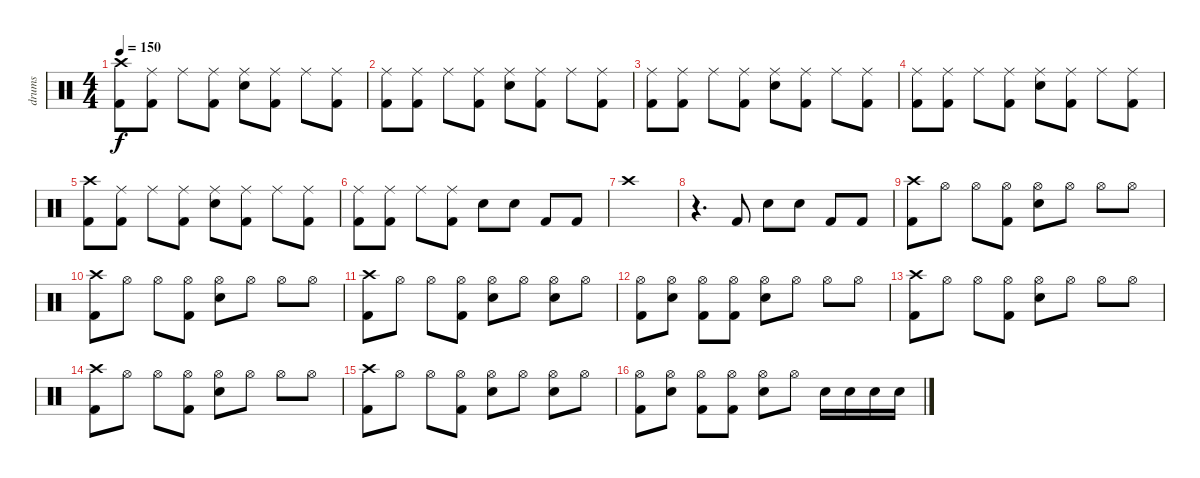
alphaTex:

\track ("drums" "drums") {instrument percussion}
\staff {score}
\articulation defaults
\ts (4 4)
\tempo 150
\clef neutral
\ks c
("Crash high (hit)" "Kick (hit) 2").8{dy f} ("Ride (middle)" "Kick (hit) 2").8 "Ride (middle)".8 ("Ride (middle)" "Kick (hit) 2").8 ("Ride (middle)" "Electric Snare (hit)").8 ("Ride (middle)" "Kick (hit) 2").8 "Ride (middle)".8 ("Ride (middle)" "Kick (hit) 2").8 |
("Ride (middle)" "Kick (hit) 2").8 ("Ride (middle)" "Kick (hit) 2").8 "Ride (middle)".8 ("Ride (middle)" "Kick (hit) 2").8 ("Ride (middle)" "Electric Snare (hit)").8 ("Ride (middle)" "Kick (hit) 2").8 "Ride (middle)".8 ("Ride (middle)" "Kick (hit) 2").8 |
("Ride (middle)" "Kick (hit) 2").8 ("Ride (middle)" "Kick (hit) 2").8 "Ride (middle)".8 ("Ride (middle)" "Kick (hit) 2").8 ("Ride (middle)" "Electric Snare (hit)").8 ("Ride (middle)" "Kick (hit) 2").8 "Ride (middle)".8 ("Ride (middle)" "Kick (hit) 2").8 |
("Ride (middle)" "Kick (hit) 2").8 ("Ride (middle)" "Kick (hit) 2").8 "Ride (middle)".8 ("Ride (middle)" "Kick (hit) 2").8 ("Ride (middle)" "Electric Snare (hit)").8 ("Ride (middle)" "Kick (hit) 2").8 "Ride (middle)".8 ("Ride (middle)" "Kick (hit) 2").8 |
("Crash high (hit)" "Kick (hit) 2").8 ("Ride (middle)" "Kick (hit) 2").8 "Ride (middle)".8 ("Ride (middle)" "Kick (hit) 2").8 ("Ride (middle)" "Electric Snare (hit)").8 ("Ride (middle)" "Kick (hit) 2").8 "Ride (middle)".8 ("Ride (middle)" "Kick (hit) 2").8 |
("Ride (middle)" "Kick (hit) 2").8 ("Ride (middle)" "Kick (hit) 2").8 "Ride (middle)".8 ("Ride (middle)" "Kick (hit) 2").8 "Electric Snare (hit)".8 "Electric Snare (hit)".8 "Kick (hit) 2".8 "Kick (hit) 2".8 |
"Crash high (hit)".1 |
r.4{d} "Kick (hit) 2".8 "Electric Snare (hit)".8 "Electric Snare (hit)".8 "Kick (hit) 2".8 "Kick (hit) 2".8 |
("Crash high (hit)" "Kick (hit) 2").8 "Hi-Hat (open)".8 "Hi-Hat (open)".8 ("Hi-Hat (open)" "Kick (hit) 2").8 ("Hi-Hat (open)" "Electric Snare (hit)").8 "Hi-Hat (open)".8 "Hi-Hat (open)".8 "Hi-Hat (open)".8 |
("Crash high (hit)" "Kick (hit) 2").8 "Hi-Hat (open)".8 "Hi-Hat (open)".8 ("Hi-Hat (open)" "Kick (hit) 2").8 ("Hi-Hat (open)" "Electric Snare (hit)").8 "Hi-Hat (open)".8 "Hi-Hat (open)".8 "Hi-Hat (open)".8 |
("Crash high (hit)" "Kick (hit) 2").8 "Hi-Hat (open)".8 "Hi-Hat (open)".8 ("Hi-Hat (open)" "Kick (hit) 2").8 ("Hi-Hat (open)" "Electric Snare (hit)").8 "Hi-Hat (open)".8 ("Hi-Hat (open)" "Electric Snare (hit)").8 "Hi-Hat (open)".8 |
("Hi-Hat (open)" "Kick (hit) 2").8 ("Hi-Hat (open)" "Electric Snare (hit)").8 ("Hi-Hat (open)" "Kick (hit) 2").8 ("Hi-Hat (open)" "Kick (hit) 2").8 ("Hi-Hat (open)" "Electric Snare (hit)").8 "Hi-Hat (open)".8 "Hi-Hat (open)".8 "Hi-Hat (open)".8 |
("Crash high (hit)" "Kick (hit) 2").8 "Hi-Hat (open)".8 "Hi-Hat (open)".8 ("Hi-Hat (open)" "Kick (hit) 2").8 ("Hi-Hat (open)" "Electric Snare (hit)").8 "Hi-Hat (open)".8 "Hi-Hat (open)".8 "Hi-Hat (open)".8 |
("Crash high (hit)" "Kick (hit) 2").8 "Hi-Hat (open)".8 "Hi-Hat (open)".8 ("Hi-Hat (open)" "Kick (hit) 2").8 ("Hi-Hat (open)" "Electric Snare (hit)").8 "Hi-Hat (open)".8 "Hi-Hat (open)".8 "Hi-Hat (open)".8 |
("Crash high (hit)" "Kick (hit) 2").8 "Hi-Hat (open)".8 "Hi-Hat (open)".8 ("Hi-Hat (open)" "Kick (hit) 2").8 ("Hi-Hat (open)" "Electric Snare (hit)").8 "Hi-Hat (open)".8 ("Hi-Hat (open)" "Electric Snare (hit)").8 "Hi-Hat (open)".8 |
("Hi-Hat (open)" "Kick (hit) 2").8 ("Hi-Hat (open)" "Electric Snare (hit)").8 ("Hi-Hat (open)" "Kick (hit) 2").8 ("Hi-Hat (open)" "Kick (hit) 2").8 ("Hi-Hat (open)" "Electric Snare (hit)").8 "Hi-Hat (open)".8 "Electric Snare (hit)".16 "Electric Snare (hit)".16 "Electric Snare (hit)".16 "Electric Snare (hit)".16
